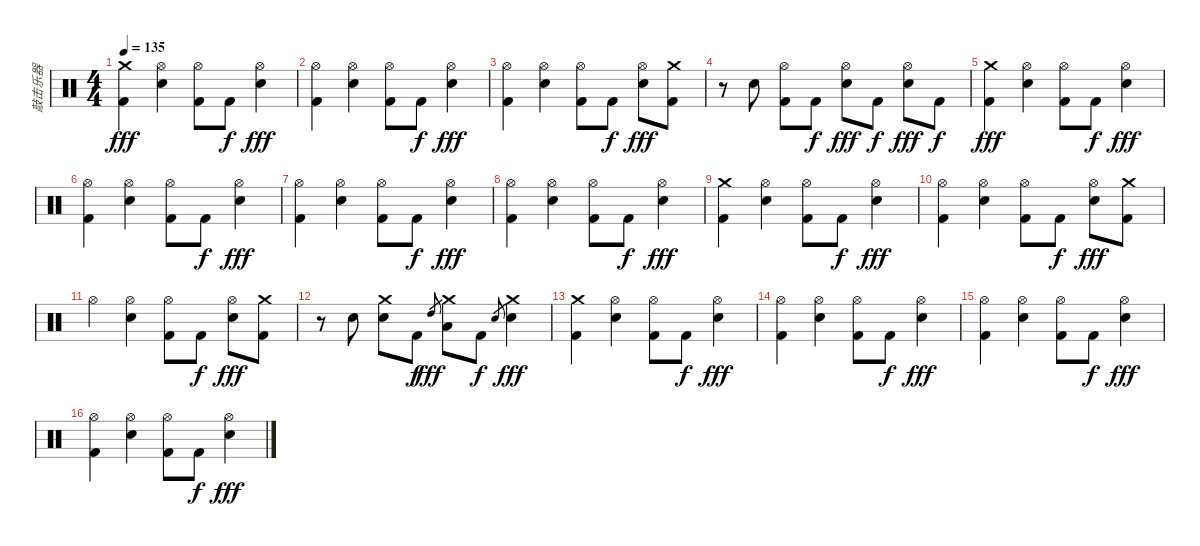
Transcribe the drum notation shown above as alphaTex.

\track ("敲击乐器" "敲击乐器") {instrument percussion}
\staff {score}
\articulation defaults
\ts (4 4)
\tempo 135
\clef neutral
\ks c
("Crash medium (hit)" "Kick (hit) 2").4{dy fff} ("Hi-Hat (open)" "Electric Snare (hit)").4 ("Hi-Hat (open)" "Kick (hit) 2").8 "Kick (hit) 2".8{dy f} ("Hi-Hat (open)" "Electric Snare (hit)").4{dy fff} |
("Hi-Hat (open)" "Kick (hit) 2").4 ("Hi-Hat (open)" "Electric Snare (hit)").4 ("Hi-Hat (open)" "Kick (hit) 2").8 "Kick (hit) 2".8{dy f} ("Hi-Hat (open)" "Electric Snare (hit)").4{dy fff} |
("Hi-Hat (open)" "Kick (hit) 2").4 ("Hi-Hat (open)" "Electric Snare (hit)").4 ("Hi-Hat (open)" "Kick (hit) 2").8 "Kick (hit) 2".8{dy f} ("Hi-Hat (open)" "Electric Snare (hit)").8{dy fff} ("Crash medium (hit)" "Kick (hit) 2").8 |
r.8 "Electric Snare (hit)".8 ("Hi-Hat (open)" "Kick (hit) 2").8 "Kick (hit) 2".8{dy f} ("Electric Snare (hit)" "Hi-Hat (open)").8{dy fff} "Kick (hit) 2".8{dy f} ("Electric Snare (hit)" "Hi-Hat (open)").8{dy fff} "Kick (hit) 2".8{dy f} |
("Crash medium (hit)" "Kick (hit) 2").4{dy fff} ("Hi-Hat (open)" "Electric Snare (hit)").4 ("Hi-Hat (open)" "Kick (hit) 2").8 "Kick (hit) 2".8{dy f} ("Hi-Hat (open)" "Electric Snare (hit)").4{dy fff} |
("Hi-Hat (open)" "Kick (hit) 2").4 ("Hi-Hat (open)" "Electric Snare (hit)").4 ("Hi-Hat (open)" "Kick (hit) 2").8 "Kick (hit) 2".8{dy f} ("Hi-Hat (open)" "Electric Snare (hit)").4{dy fff} |
("Hi-Hat (open)" "Kick (hit) 2").4 ("Hi-Hat (open)" "Electric Snare (hit)").4 ("Hi-Hat (open)" "Kick (hit) 2").8 "Kick (hit) 2".8{dy f} ("Hi-Hat (open)" "Electric Snare (hit)").4{dy fff} |
("Hi-Hat (open)" "Kick (hit) 2").4 ("Hi-Hat (open)" "Electric Snare (hit)").4 ("Hi-Hat (open)" "Kick (hit) 2").8 "Kick (hit) 2".8{dy f} ("Hi-Hat (open)" "Electric Snare (hit)").4{dy fff} |
("Crash medium (hit)" "Kick (hit) 2").4 ("Hi-Hat (open)" "Electric Snare (hit)").4 ("Hi-Hat (open)" "Kick (hit) 2").8 "Kick (hit) 2".8{dy f} ("Hi-Hat (open)" "Electric Snare (hit)").4{dy fff} |
("Hi-Hat (open)" "Kick (hit) 2").4 ("Hi-Hat (open)" "Electric Snare (hit)").4 ("Hi-Hat (open)" "Kick (hit) 2").8 "Kick (hit) 2".8{dy f} ("Hi-Hat (open)" "Electric Snare (hit)").8{dy fff} ("Crash medium (hit)" "Kick (hit) 2").8 |
"Hi-Hat (open)".4 ("Hi-Hat (open)" "Electric Snare (hit)").4 ("Hi-Hat (open)" "Kick (hit) 2").8 "Kick (hit) 2".8{dy f} ("Electric Snare (hit)" "Hi-Hat (open)").8{dy fff} ("Crash medium (hit)" "Kick (hit) 2").8 |
r.8 "Electric Snare (hit)".8 ("Electric Snare (hit)" "Crash medium (hit)").8 "Kick (hit) 2".8{dy f} "High Tom (hit)".8{gr dy fff} ("Low Tom (hit)" "Crash medium (hit)").8 "Kick (hit) 2".8{dy f} "Snare (hit) 2".8{gr} ("Electric Snare (hit)" "Crash medium (hit)").4{dy fff} |
("Crash medium (hit)" "Kick (hit) 2").4 ("Hi-Hat (open)" "Electric Snare (hit)").4 ("Hi-Hat (open)" "Kick (hit) 2").8 "Kick (hit) 2".8{dy f} ("Hi-Hat (open)" "Electric Snare (hit)").4{dy fff} |
("Hi-Hat (open)" "Kick (hit) 2").4 ("Hi-Hat (open)" "Electric Snare (hit)").4 ("Hi-Hat (open)" "Kick (hit) 2").8 "Kick (hit) 2".8{dy f} ("Hi-Hat (open)" "Electric Snare (hit)").4{dy fff} |
("Hi-Hat (open)" "Kick (hit) 2").4 ("Hi-Hat (open)" "Electric Snare (hit)").4 ("Hi-Hat (open)" "Kick (hit) 2").8 "Kick (hit) 2".8{dy f} ("Hi-Hat (open)" "Electric Snare (hit)").4{dy fff} |
("Hi-Hat (open)" "Kick (hit) 2").4 ("Hi-Hat (open)" "Electric Snare (hit)").4 ("Hi-Hat (open)" "Kick (hit) 2").8 "Kick (hit) 2".8{dy f} ("Hi-Hat (open)" "Electric Snare (hit)").4{dy fff}
